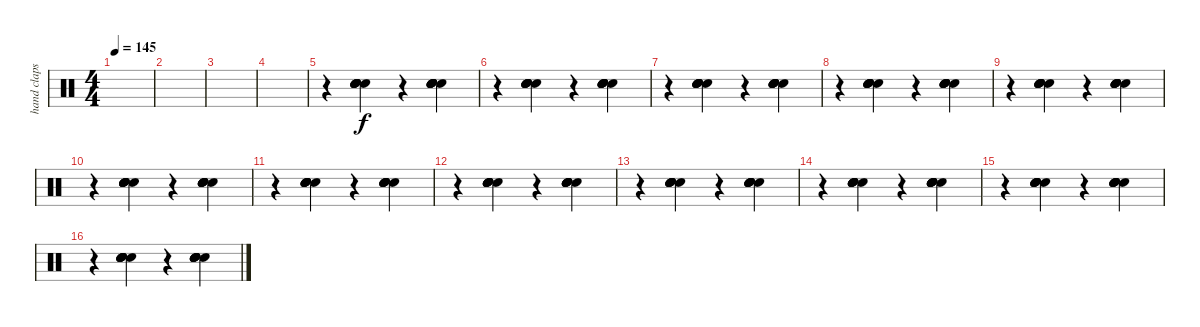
\track ("hand claps" "hand claps") {instrument percussion}
\staff {score}
\articulation defaults
\ts (4 4)
\tempo 145
\clef neutral
\ks c
|
|
|
|
r.4 ("Hand Clap (hit)" "Hand Clap (hit)" "Hand Clap (hit)" "Hand Clap (hit)" "Hand Clap (hit)" "Hand Clap (hit)").4 r.4 ("Hand Clap (hit)" "Hand Clap (hit)" "Hand Clap (hit)" "Hand Clap (hit)" "Hand Clap (hit)" "Hand Clap (hit)").4 |
r.4 ("Hand Clap (hit)" "Hand Clap (hit)" "Hand Clap (hit)" "Hand Clap (hit)" "Hand Clap (hit)" "Hand Clap (hit)").4 r.4 ("Hand Clap (hit)" "Hand Clap (hit)" "Hand Clap (hit)" "Hand Clap (hit)" "Hand Clap (hit)" "Hand Clap (hit)").4 |
r.4 ("Hand Clap (hit)" "Hand Clap (hit)" "Hand Clap (hit)" "Hand Clap (hit)" "Hand Clap (hit)" "Hand Clap (hit)").4 r.4 ("Hand Clap (hit)" "Hand Clap (hit)" "Hand Clap (hit)" "Hand Clap (hit)" "Hand Clap (hit)" "Hand Clap (hit)").4 |
r.4 ("Hand Clap (hit)" "Hand Clap (hit)" "Hand Clap (hit)" "Hand Clap (hit)" "Hand Clap (hit)" "Hand Clap (hit)").4 r.4 ("Hand Clap (hit)" "Hand Clap (hit)" "Hand Clap (hit)" "Hand Clap (hit)" "Hand Clap (hit)" "Hand Clap (hit)").4 |
r.4 ("Hand Clap (hit)" "Hand Clap (hit)" "Hand Clap (hit)" "Hand Clap (hit)" "Hand Clap (hit)" "Hand Clap (hit)").4 r.4 ("Hand Clap (hit)" "Hand Clap (hit)" "Hand Clap (hit)" "Hand Clap (hit)" "Hand Clap (hit)" "Hand Clap (hit)").4 |
r.4 ("Hand Clap (hit)" "Hand Clap (hit)" "Hand Clap (hit)" "Hand Clap (hit)" "Hand Clap (hit)" "Hand Clap (hit)").4 r.4 ("Hand Clap (hit)" "Hand Clap (hit)" "Hand Clap (hit)" "Hand Clap (hit)" "Hand Clap (hit)" "Hand Clap (hit)").4 |
r.4 ("Hand Clap (hit)" "Hand Clap (hit)" "Hand Clap (hit)" "Hand Clap (hit)" "Hand Clap (hit)" "Hand Clap (hit)").4 r.4 ("Hand Clap (hit)" "Hand Clap (hit)" "Hand Clap (hit)" "Hand Clap (hit)" "Hand Clap (hit)" "Hand Clap (hit)").4 |
r.4 ("Hand Clap (hit)" "Hand Clap (hit)" "Hand Clap (hit)" "Hand Clap (hit)" "Hand Clap (hit)" "Hand Clap (hit)").4 r.4 ("Hand Clap (hit)" "Hand Clap (hit)" "Hand Clap (hit)" "Hand Clap (hit)" "Hand Clap (hit)" "Hand Clap (hit)").4 |
r.4 ("Hand Clap (hit)" "Hand Clap (hit)" "Hand Clap (hit)" "Hand Clap (hit)" "Hand Clap (hit)" "Hand Clap (hit)").4 r.4 ("Hand Clap (hit)" "Hand Clap (hit)" "Hand Clap (hit)" "Hand Clap (hit)" "Hand Clap (hit)" "Hand Clap (hit)").4 |
r.4 ("Hand Clap (hit)" "Hand Clap (hit)" "Hand Clap (hit)" "Hand Clap (hit)" "Hand Clap (hit)" "Hand Clap (hit)").4 r.4 ("Hand Clap (hit)" "Hand Clap (hit)" "Hand Clap (hit)" "Hand Clap (hit)" "Hand Clap (hit)" "Hand Clap (hit)").4 |
r.4 ("Hand Clap (hit)" "Hand Clap (hit)" "Hand Clap (hit)" "Hand Clap (hit)" "Hand Clap (hit)" "Hand Clap (hit)").4 r.4 ("Hand Clap (hit)" "Hand Clap (hit)" "Hand Clap (hit)" "Hand Clap (hit)" "Hand Clap (hit)" "Hand Clap (hit)").4 |
r.4 ("Hand Clap (hit)" "Hand Clap (hit)" "Hand Clap (hit)" "Hand Clap (hit)" "Hand Clap (hit)" "Hand Clap (hit)").4 r.4 ("Hand Clap (hit)" "Hand Clap (hit)" "Hand Clap (hit)" "Hand Clap (hit)" "Hand Clap (hit)" "Hand Clap (hit)").4
